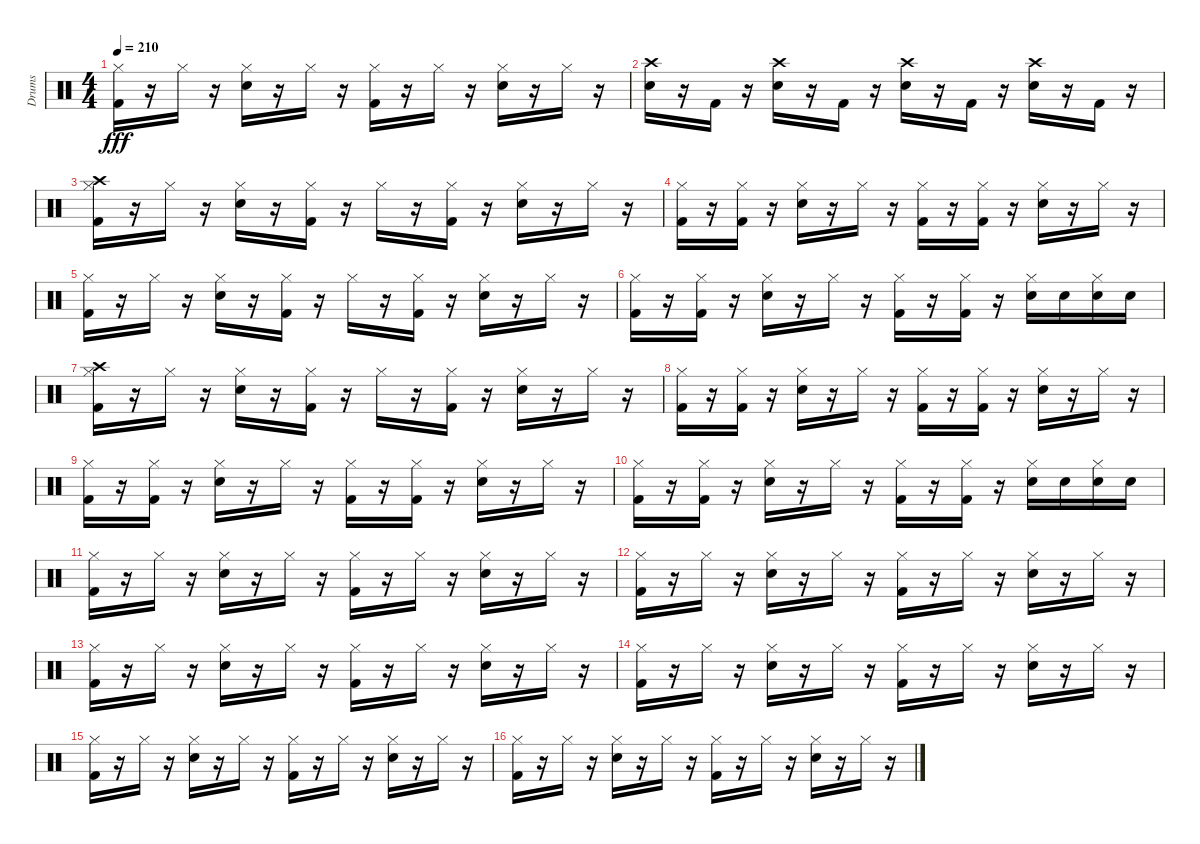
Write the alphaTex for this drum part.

\track ("Drums" "Drums") {instrument percussion}
\staff {score}
\articulation defaults
\ts (4 4)
\tempo 210
\clef neutral
\ks c
("Hi-Hat (closed)" "Kick (hit) 2").16{dy fff} r.16 "Hi-Hat (closed)".16 r.16 ("Hi-Hat (closed)" "Snare (hit) 2").16 r.16 "Hi-Hat (closed)".16 r.16 ("Kick (hit) 2" "Hi-Hat (closed)").16 r.16 "Hi-Hat (closed)".16 r.16 ("Hi-Hat (closed)" "Snare (hit) 2").16 r.16 "Hi-Hat (closed)".16 r.16 |
("Snare (hit) 2" "Crash high (hit)").16 r.16 "Kick (hit) 2".16 r.16 ("Snare (hit) 2" "Crash high (hit)").16 r.16 "Kick (hit) 2".16 r.16 ("Snare (hit) 2" "Crash high (hit)").16 r.16 "Kick (hit) 2".16 r.16 ("Crash high (hit)" "Snare (hit) 2").16 r.16 "Kick (hit) 2".16 r.16 |
("Hi-Hat (closed)" "Kick (hit) 2" "Crash high (hit)").16 r.16 "Hi-Hat (closed)".16 r.16 ("Hi-Hat (closed)" "Snare (hit) 2").16 r.16 ("Hi-Hat (closed)" "Kick (hit) 2").16 r.16 "Hi-Hat (closed)".16 r.16 ("Hi-Hat (closed)" "Kick (hit) 2").16 r.16 ("Hi-Hat (closed)" "Snare (hit) 2").16 r.16 "Hi-Hat (closed)".16 r.16 |
("Kick (hit) 2" "Hi-Hat (closed)").16 r.16 ("Kick (hit) 2" "Hi-Hat (closed)").16 r.16 ("Hi-Hat (closed)" "Snare (hit) 2").16 r.16 "Hi-Hat (closed)".16 r.16 ("Hi-Hat (closed)" "Kick (hit) 2").16 r.16 ("Hi-Hat (closed)" "Kick (hit) 2").16 r.16 ("Snare (hit) 2" "Hi-Hat (closed)").16 r.16 "Hi-Hat (closed)".16 r.16 |
("Hi-Hat (closed)" "Kick (hit) 2").16 r.16 "Hi-Hat (closed)".16 r.16 ("Snare (hit) 2" "Hi-Hat (closed)").16 r.16 ("Hi-Hat (closed)" "Kick (hit) 2").16 r.16 "Hi-Hat (closed)".16 r.16 ("Hi-Hat (closed)" "Kick (hit) 2").16 r.16 ("Hi-Hat (closed)" "Snare (hit) 2").16 r.16 "Hi-Hat (closed)".16 r.16 |
("Hi-Hat (closed)" "Kick (hit) 2").16 r.16 ("Hi-Hat (closed)" "Kick (hit) 2").16 r.16 ("Hi-Hat (closed)" "Snare (hit) 2").16 r.16 "Hi-Hat (closed)".16 r.16 ("Kick (hit) 2" "Hi-Hat (closed)").16 r.16 ("Hi-Hat (closed)" "Kick (hit) 2").16 r.16 ("Hi-Hat (closed)" "Snare (hit) 2").16 "Snare (hit) 2".16 ("Snare (hit) 2" "Hi-Hat (closed)").16 "Snare (hit) 2".16 |
("Crash high (hit)" "Hi-Hat (closed)" "Kick (hit) 2").16 r.16 "Hi-Hat (closed)".16 r.16 ("Hi-Hat (closed)" "Snare (hit) 2").16 r.16 ("Kick (hit) 2" "Hi-Hat (closed)").16 r.16 "Hi-Hat (closed)".16 r.16 ("Kick (hit) 2" "Hi-Hat (closed)").16 r.16 ("Snare (hit) 2" "Hi-Hat (closed)").16 r.16 "Hi-Hat (closed)".16 r.16 |
("Hi-Hat (closed)" "Kick (hit) 2").16 r.16 ("Kick (hit) 2" "Hi-Hat (closed)").16 r.16 ("Hi-Hat (closed)" "Snare (hit) 2").16 r.16 "Hi-Hat (closed)".16 r.16 ("Kick (hit) 2" "Hi-Hat (closed)").16 r.16 ("Kick (hit) 2" "Hi-Hat (closed)").16 r.16 ("Snare (hit) 2" "Hi-Hat (closed)").16 r.16 "Hi-Hat (closed)".16 r.16 |
("Kick (hit) 2" "Hi-Hat (closed)").16 r.16 ("Hi-Hat (closed)" "Kick (hit) 2").16 r.16 ("Snare (hit) 2" "Hi-Hat (closed)").16 r.16 "Hi-Hat (closed)".16 r.16 ("Hi-Hat (closed)" "Kick (hit) 2").16 r.16 ("Kick (hit) 2" "Hi-Hat (closed)").16 r.16 ("Snare (hit) 2" "Hi-Hat (closed)").16 r.16 "Hi-Hat (closed)".16 r.16 |
("Kick (hit) 2" "Hi-Hat (closed)").16 r.16 ("Kick (hit) 2" "Hi-Hat (closed)").16 r.16 ("Snare (hit) 2" "Hi-Hat (closed)").16 r.16 "Hi-Hat (closed)".16 r.16 ("Hi-Hat (closed)" "Kick (hit) 2").16 r.16 ("Kick (hit) 2" "Hi-Hat (closed)").16 r.16 ("Hi-Hat (closed)" "Snare (hit) 2").16 "Snare (hit) 2".16 ("Hi-Hat (closed)" "Snare (hit) 2").16 "Snare (hit) 2".16 |
("Hi-Hat (closed)" "Kick (hit) 2").16 r.16 "Hi-Hat (closed)".16 r.16 ("Snare (hit) 2" "Hi-Hat (closed)").16 r.16 "Hi-Hat (closed)".16 r.16 ("Kick (hit) 2" "Hi-Hat (closed)").16 r.16 "Hi-Hat (closed)".16 r.16 ("Hi-Hat (closed)" "Snare (hit) 2").16 r.16 "Hi-Hat (closed)".16 r.16 |
("Kick (hit) 2" "Hi-Hat (closed)").16 r.16 "Hi-Hat (closed)".16 r.16 ("Hi-Hat (closed)" "Snare (hit) 2").16 r.16 "Hi-Hat (closed)".16 r.16 ("Kick (hit) 2" "Hi-Hat (closed)").16 r.16 "Hi-Hat (closed)".16 r.16 ("Snare (hit) 2" "Hi-Hat (closed)").16 r.16 "Hi-Hat (closed)".16 r.16 |
("Kick (hit) 2" "Hi-Hat (closed)").16 r.16 "Hi-Hat (closed)".16 r.16 ("Hi-Hat (closed)" "Snare (hit) 2").16 r.16 "Hi-Hat (closed)".16 r.16 ("Kick (hit) 2" "Hi-Hat (closed)").16 r.16 "Hi-Hat (closed)".16 r.16 ("Hi-Hat (closed)" "Snare (hit) 2").16 r.16 "Hi-Hat (closed)".16 r.16 |
("Hi-Hat (closed)" "Kick (hit) 2").16 r.16 "Hi-Hat (closed)".16 r.16 ("Snare (hit) 2" "Hi-Hat (closed)").16 r.16 "Hi-Hat (closed)".16 r.16 ("Kick (hit) 2" "Hi-Hat (closed)").16 r.16 "Hi-Hat (closed)".16 r.16 ("Hi-Hat (closed)" "Snare (hit) 2").16 r.16 "Hi-Hat (closed)".16 r.16 |
("Hi-Hat (closed)" "Kick (hit) 2").16 r.16 "Hi-Hat (closed)".16 r.16 ("Hi-Hat (closed)" "Snare (hit) 2").16 r.16 "Hi-Hat (closed)".16 r.16 ("Kick (hit) 2" "Hi-Hat (closed)").16 r.16 "Hi-Hat (closed)".16 r.16 ("Snare (hit) 2" "Hi-Hat (closed)").16 r.16 "Hi-Hat (closed)".16 r.16 |
("Hi-Hat (closed)" "Kick (hit) 2").16 r.16 "Hi-Hat (closed)".16 r.16 ("Snare (hit) 2" "Hi-Hat (closed)").16 r.16 "Hi-Hat (closed)".16 r.16 ("Kick (hit) 2" "Hi-Hat (closed)").16 r.16 "Hi-Hat (closed)".16 r.16 ("Hi-Hat (closed)" "Snare (hit) 2").16 r.16 "Hi-Hat (closed)".16 r.16
